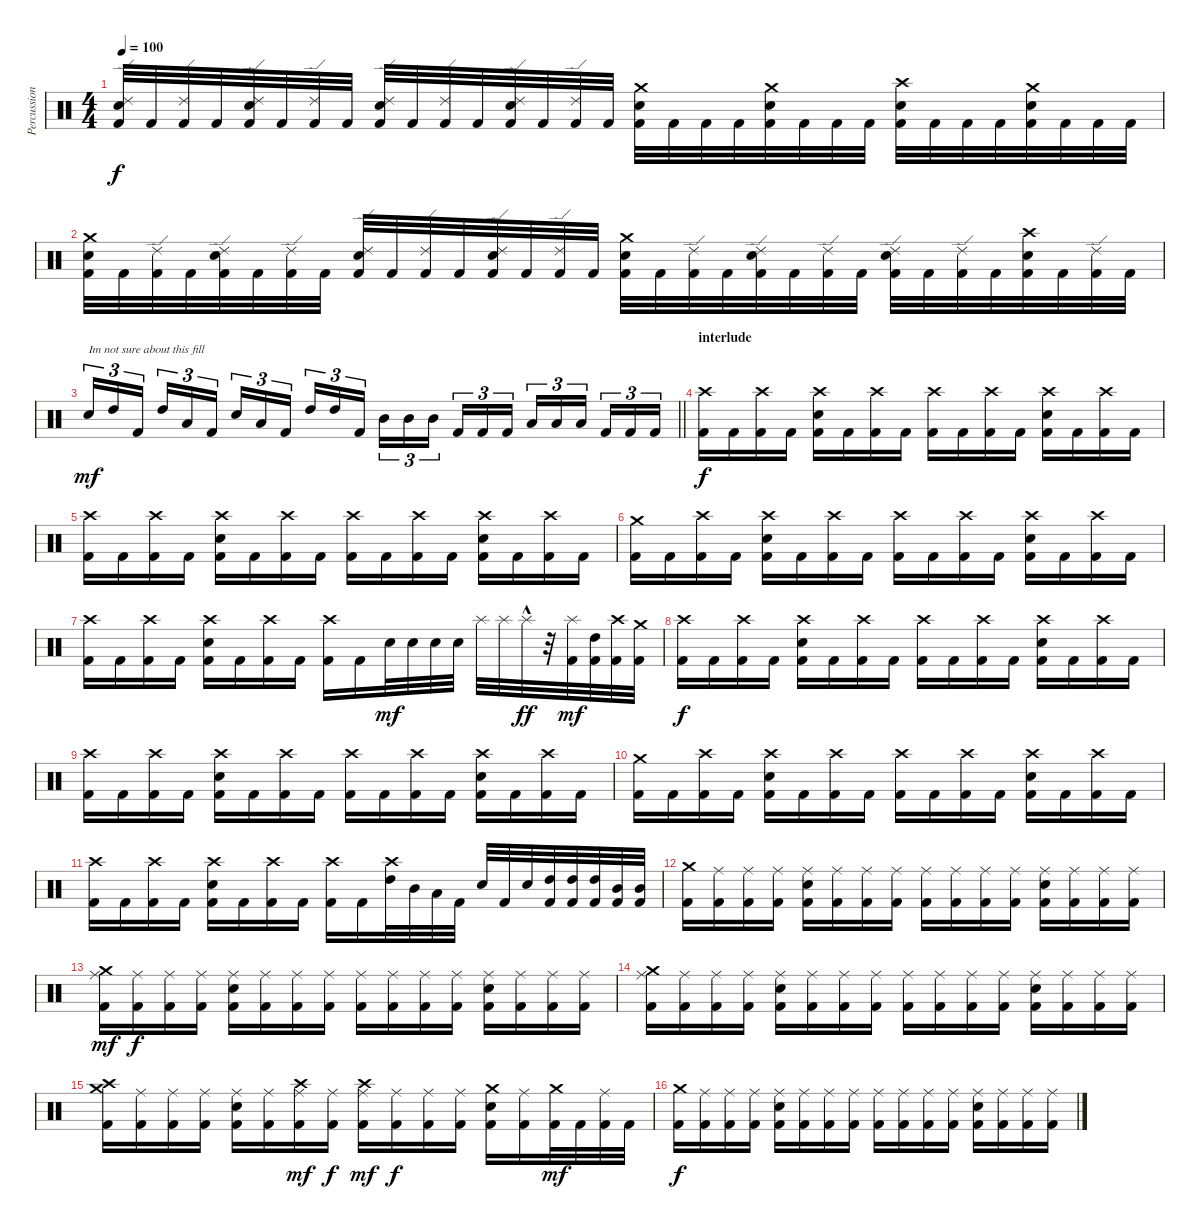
\track ("Percussion" "Percussion") {instrument percussion}
\staff {score}
\articulation defaults
\ts (4 4)
\tempo 100
\clef neutral
\ks c
("Ride (edge) 2" "Electric Snare (hit)" "Kick (hit) 2").32{dy f} "Kick (hit) 2".32 ("Ride (edge) 2" "Kick (hit) 2").32 "Kick (hit) 2".32 ("Ride (edge) 2" "Electric Snare (hit)" "Kick (hit) 2").32 "Kick (hit) 2".32 ("Ride (edge) 2" "Kick (hit) 2").32 "Kick (hit) 2".32 ("Ride (edge) 2" "Electric Snare (hit)" "Kick (hit) 2").32 "Kick (hit) 2".32 ("Ride (edge) 2" "Kick (hit) 2").32 "Kick (hit) 2".32 ("Ride (edge) 2" "Electric Snare (hit)" "Kick (hit) 2").32 "Kick (hit) 2".32 ("Ride (edge) 2" "Kick (hit) 2").32 "Kick (hit) 2".32 ("Crash medium (hit)" "Electric Snare (hit)" "Kick (hit) 2").32 "Kick (hit) 2".32 "Kick (hit) 2".32 "Kick (hit) 2".32 ("Crash medium (hit)" "Electric Snare (hit)" "Kick (hit) 2").32 "Kick (hit) 2".32 "Kick (hit) 2".32 "Kick (hit) 2".32 ("Crash high (hit)" "Electric Snare (hit)" "Kick (hit) 2").32 "Kick (hit) 2".32 "Kick (hit) 2".32 "Kick (hit) 2".32 ("Crash medium (hit)" "Electric Snare (hit)" "Kick (hit) 2").32 "Kick (hit) 2".32 "Kick (hit) 2".32 "Kick (hit) 2".32 |
("Crash medium (hit)" "Electric Snare (hit)" "Kick (hit) 2").32 "Kick (hit) 2".32 ("Ride (edge) 2" "Kick (hit) 2").32 "Kick (hit) 2".32 ("Ride (edge) 2" "Electric Snare (hit)" "Kick (hit) 2").32 "Kick (hit) 2".32 ("Ride (edge) 2" "Kick (hit) 2").32 "Kick (hit) 2".32 ("Ride (edge) 2" "Electric Snare (hit)" "Kick (hit) 2").32 "Kick (hit) 2".32 ("Ride (edge) 2" "Kick (hit) 2").32 "Kick (hit) 2".32 ("Ride (edge) 2" "Electric Snare (hit)" "Kick (hit) 2").32 "Kick (hit) 2".32 ("Ride (edge) 2" "Kick (hit) 2").32 "Kick (hit) 2".32 ("Crash medium (hit)" "Electric Snare (hit)" "Kick (hit) 2").32 "Kick (hit) 2".32 ("Ride (edge) 2" "Kick (hit) 2").32 "Kick (hit) 2".32 ("Ride (edge) 2" "Electric Snare (hit)" "Kick (hit) 2").32 "Kick (hit) 2".32 ("Ride (edge) 2" "Kick (hit) 2").32 "Kick (hit) 2".32 ("Ride (edge) 2" "Electric Snare (hit)" "Kick (hit) 2").32 "Kick (hit) 2".32 ("Ride (edge) 2" "Kick (hit) 2").32 "Kick (hit) 2".32 ("Crash high (hit)" "Electric Snare (hit)" "Kick (hit) 2").32 "Kick (hit) 2".32 ("Ride (edge) 2" "Kick (hit) 2").32 "Kick (hit) 2".32 |
\barLineRight lightlight "Electric Snare (hit)".16{tu (3 2) txt "Im not sure about this fill" dy mf} "High Tom (hit)".16{tu (3 2)} "Kick (hit) 2".16{tu (3 2) beam splitsecondary} "High Tom (hit)".16{tu (3 2)} "Low Tom (hit)".16{tu (3 2)} "Kick (hit) 2".16{tu (3 2)} "Electric Snare (hit)".16{tu (3 2)} "Low Tom (hit)".16{tu (3 2)} "Kick (hit) 2".16{tu (3 2) beam splitsecondary} "High Tom (hit)".16{tu (3 2)} "High Tom (hit)".16{tu (3 2)} "Kick (hit) 2".16{tu (3 2)} "Mid Tom (hit)".16{tu (3 2)} "Mid Tom (hit)".16{tu (3 2)} "Mid Tom (hit)".16{tu (3 2) beam splitsecondary} "Kick (hit) 2".16{tu (3 2)} "Kick (hit) 2".16{tu (3 2)} "Kick (hit) 2".16{tu (3 2)} "Low Tom (hit)".16{tu (3 2)} "Low Tom (hit)".16{tu (3 2)} "Low Tom (hit)".16{tu (3 2) beam splitsecondary} "Kick (hit) 2".16{tu (3 2)} "Kick (hit) 2".16{tu (3 2)} "Kick (hit) 2".16{tu (3 2)}
|
\section ("" "interlude")
("Crash high (hit)" "Kick (hit) 2").16{dy f} "Kick (hit) 2".16 ("Crash high (hit)" "Kick (hit) 2").16 "Kick (hit) 2".16 ("Crash high (hit)" "Electric Snare (hit)" "Kick (hit) 2").16 "Kick (hit) 2".16 ("Crash high (hit)" "Kick (hit) 2").16 "Kick (hit) 2".16 ("Crash high (hit)" "Kick (hit) 2").16 "Kick (hit) 2".16 ("Crash high (hit)" "Kick (hit) 2").16 "Kick (hit) 2".16 ("Crash high (hit)" "Electric Snare (hit)" "Kick (hit) 2").16 "Kick (hit) 2".16 ("Crash high (hit)" "Kick (hit) 2").16 "Kick (hit) 2".16 |
("Crash high (hit)" "Kick (hit) 2").16 "Kick (hit) 2".16 ("Crash high (hit)" "Kick (hit) 2").16 "Kick (hit) 2".16 ("Crash high (hit)" "Electric Snare (hit)" "Kick (hit) 2").16 "Kick (hit) 2".16 ("Crash high (hit)" "Kick (hit) 2").16 "Kick (hit) 2".16 ("Crash high (hit)" "Kick (hit) 2").16 "Kick (hit) 2".16 ("Crash high (hit)" "Kick (hit) 2").16 "Kick (hit) 2".16 ("Crash high (hit)" "Electric Snare (hit)" "Kick (hit) 2").16 "Kick (hit) 2".16 ("Crash high (hit)" "Kick (hit) 2").16 "Kick (hit) 2".16 |
("Crash medium (hit)" "Kick (hit) 2").16 "Kick (hit) 2".16 ("Crash high (hit)" "Kick (hit) 2").16 "Kick (hit) 2".16 ("Crash high (hit)" "Electric Snare (hit)" "Kick (hit) 2").16 "Kick (hit) 2".16 ("Crash high (hit)" "Kick (hit) 2").16 "Kick (hit) 2".16 ("Crash high (hit)" "Kick (hit) 2").16 "Kick (hit) 2".16 ("Crash high (hit)" "Kick (hit) 2").16 "Kick (hit) 2".16 ("Crash high (hit)" "Electric Snare (hit)" "Kick (hit) 2").16 "Kick (hit) 2".16 ("Crash high (hit)" "Kick (hit) 2").16 "Kick (hit) 2".16 |
("Crash high (hit)" "Kick (hit) 2").16 "Kick (hit) 2".16 ("Crash high (hit)" "Kick (hit) 2").16 "Kick (hit) 2".16 ("Crash high (hit)" "Electric Snare (hit)" "Kick (hit) 2").16 "Kick (hit) 2".16 ("Crash high (hit)" "Kick (hit) 2").16 "Kick (hit) 2".16 ("Crash high (hit)" "Kick (hit) 2").16 "Kick (hit) 2".16 "Electric Snare (hit)".32{dy mf} "Electric Snare (hit)".32 "Electric Snare (hit)".32 "Electric Snare (hit)".32 "Splash (hit)".32 "Splash (hit)".32 "Splash (hit)"{hac}.32{dy ff} r.32 ("Splash (hit)" "Kick (hit) 2").32{dy mf} ("High Tom (hit)" "Kick (hit) 2").32 ("Crash high (hit)" "Kick (hit) 2").32 ("Crash medium (hit)" "Kick (hit) 2").32 |
("Crash high (hit)" "Kick (hit) 2").16{dy f} "Kick (hit) 2".16 ("Crash high (hit)" "Kick (hit) 2").16 "Kick (hit) 2".16 ("Crash high (hit)" "Electric Snare (hit)" "Kick (hit) 2").16 "Kick (hit) 2".16 ("Crash high (hit)" "Kick (hit) 2").16 "Kick (hit) 2".16 ("Crash high (hit)" "Kick (hit) 2").16 "Kick (hit) 2".16 ("Crash high (hit)" "Kick (hit) 2").16 "Kick (hit) 2".16 ("Crash high (hit)" "Electric Snare (hit)" "Kick (hit) 2").16 "Kick (hit) 2".16 ("Crash high (hit)" "Kick (hit) 2").16 "Kick (hit) 2".16 |
("Crash high (hit)" "Kick (hit) 2").16 "Kick (hit) 2".16 ("Crash high (hit)" "Kick (hit) 2").16 "Kick (hit) 2".16 ("Crash high (hit)" "Electric Snare (hit)" "Kick (hit) 2").16 "Kick (hit) 2".16 ("Crash high (hit)" "Kick (hit) 2").16 "Kick (hit) 2".16 ("Crash high (hit)" "Kick (hit) 2").16 "Kick (hit) 2".16 ("Crash high (hit)" "Kick (hit) 2").16 "Kick (hit) 2".16 ("Crash high (hit)" "Electric Snare (hit)" "Kick (hit) 2").16 "Kick (hit) 2".16 ("Crash high (hit)" "Kick (hit) 2").16 "Kick (hit) 2".16 |
("Crash medium (hit)" "Kick (hit) 2").16 "Kick (hit) 2".16 ("Crash high (hit)" "Kick (hit) 2").16 "Kick (hit) 2".16 ("Crash high (hit)" "Electric Snare (hit)" "Kick (hit) 2").16 "Kick (hit) 2".16 ("Crash high (hit)" "Kick (hit) 2").16 "Kick (hit) 2".16 ("Crash high (hit)" "Kick (hit) 2").16 "Kick (hit) 2".16 ("Crash high (hit)" "Kick (hit) 2").16 "Kick (hit) 2".16 ("Crash high (hit)" "Electric Snare (hit)" "Kick (hit) 2").16 "Kick (hit) 2".16 ("Crash high (hit)" "Kick (hit) 2").16 "Kick (hit) 2".16 |
("Crash high (hit)" "Kick (hit) 2").16 "Kick (hit) 2".16 ("Crash high (hit)" "Kick (hit) 2").16 "Kick (hit) 2".16 ("Crash high (hit)" "Electric Snare (hit)" "Kick (hit) 2").16 "Kick (hit) 2".16 ("Crash high (hit)" "Kick (hit) 2").16 "Kick (hit) 2".16 ("Crash high (hit)" "Kick (hit) 2").16 "Kick (hit) 2".16 ("Crash high (hit)" "High Tom (hit)").32 "Mid Tom (hit)".32 "Low Tom (hit)".32 "Kick (hit) 2".32 "Electric Snare (hit)".32 "Kick (hit) 2".32 "Electric Snare (hit)".32 ("High Tom (hit)" "Kick (hit) 2").32 ("High Tom (hit)" "Kick (hit) 2").32 ("High Tom (hit)" "Kick (hit) 2").32 ("Mid Tom (hit)" "Kick (hit) 2").32 ("Mid Tom (hit)" "Kick (hit) 2").32 |
("Crash medium (hit)" "Kick (hit) 2").16 ("Ride (middle)" "Kick (hit) 2").16 ("Ride (middle)" "Kick (hit) 2").16 ("Ride (middle)" "Kick (hit) 2").16 ("Ride (middle)" "Electric Snare (hit)" "Kick (hit) 2").16 ("Ride (middle)" "Kick (hit) 2").16 ("Ride (middle)" "Kick (hit) 2").16 ("Ride (middle)" "Kick (hit) 2").16 ("Ride (middle)" "Kick (hit) 2").16 ("Ride (middle)" "Kick (hit) 2").16 ("Ride (middle)" "Kick (hit) 2").16 ("Ride (middle)" "Kick (hit) 2").16 ("Ride (middle)" "Electric Snare (hit)" "Kick (hit) 2").16 ("Ride (middle)" "Kick (hit) 2").16 ("Ride (middle)" "Kick (hit) 2").16 ("Ride (middle)" "Kick (hit) 2").16 |
("Ride (middle)" "Crash medium (hit)" "Kick (hit) 2").16{dy mf} ("Ride (middle)" "Kick (hit) 2").16{dy f} ("Ride (middle)" "Kick (hit) 2").16 ("Ride (middle)" "Kick (hit) 2").16 ("Ride (middle)" "Electric Snare (hit)" "Kick (hit) 2").16 ("Ride (middle)" "Kick (hit) 2").16 ("Ride (middle)" "Kick (hit) 2").16 ("Ride (middle)" "Kick (hit) 2").16 ("Ride (middle)" "Kick (hit) 2").16 ("Ride (middle)" "Kick (hit) 2").16 ("Ride (middle)" "Kick (hit) 2").16 ("Ride (middle)" "Kick (hit) 2").16 ("Ride (middle)" "Electric Snare (hit)" "Kick (hit) 2").16 ("Ride (middle)" "Kick (hit) 2").16 ("Ride (middle)" "Kick (hit) 2").16 ("Ride (middle)" "Kick (hit) 2").16 |
("Ride (middle)" "Crash medium (hit)" "Kick (hit) 2").16 ("Ride (middle)" "Kick (hit) 2").16 ("Ride (middle)" "Kick (hit) 2").16 ("Ride (middle)" "Kick (hit) 2").16 ("Ride (middle)" "Electric Snare (hit)" "Kick (hit) 2").16 ("Ride (middle)" "Kick (hit) 2").16 ("Ride (middle)" "Kick (hit) 2").16 ("Ride (middle)" "Kick (hit) 2").16 ("Ride (middle)" "Kick (hit) 2").16 ("Ride (middle)" "Kick (hit) 2").16 ("Ride (middle)" "Kick (hit) 2").16 ("Ride (middle)" "Kick (hit) 2").16 ("Ride (middle)" "Electric Snare (hit)" "Kick (hit) 2").16 ("Ride (middle)" "Kick (hit) 2").16 ("Ride (middle)" "Kick (hit) 2").16 ("Ride (middle)" "Kick (hit) 2").16 |
("Crash medium (hit)" "Crash high (hit)" "Kick (hit) 2").16 ("Ride (middle)" "Kick (hit) 2").16 ("Ride (middle)" "Kick (hit) 2").16 ("Ride (middle)" "Kick (hit) 2").16 ("Ride (middle)" "Electric Snare (hit)" "Kick (hit) 2").16 ("Ride (middle)" "Kick (hit) 2").16 ("Crash high (hit)" "Ride (middle)" "Kick (hit) 2").16{dy mf} ("Ride (middle)" "Kick (hit) 2").16{dy f} ("Crash high (hit)" "Ride (middle)" "Kick (hit) 2").16{dy mf} ("Ride (middle)" "Kick (hit) 2").16{dy f} ("Ride (middle)" "Kick (hit) 2").16 ("Ride (middle)" "Kick (hit) 2").16 ("Crash medium (hit)" "Electric Snare (hit)" "Kick (hit) 2").16 ("Ride (middle)" "Kick (hit) 2").16 ("Crash medium (hit)" "Kick (hit) 2").32{dy mf} "Kick (hit) 2".32 ("Ride (middle)" "Kick (hit) 2").32 "Kick (hit) 2".32 |
("Crash medium (hit)" "Kick (hit) 2").16{dy f} ("Ride (middle)" "Kick (hit) 2").16 ("Ride (middle)" "Kick (hit) 2").16 ("Ride (middle)" "Kick (hit) 2").16 ("Ride (middle)" "Electric Snare (hit)" "Kick (hit) 2").16 ("Ride (middle)" "Kick (hit) 2").16 ("Ride (middle)" "Kick (hit) 2").16 ("Ride (middle)" "Kick (hit) 2").16 ("Ride (middle)" "Kick (hit) 2").16 ("Ride (middle)" "Kick (hit) 2").16 ("Ride (middle)" "Kick (hit) 2").16 ("Ride (middle)" "Kick (hit) 2").16 ("Ride (middle)" "Electric Snare (hit)" "Kick (hit) 2").16 ("Ride (middle)" "Kick (hit) 2").16 ("Ride (middle)" "Kick (hit) 2").16 ("Ride (middle)" "Kick (hit) 2").16
